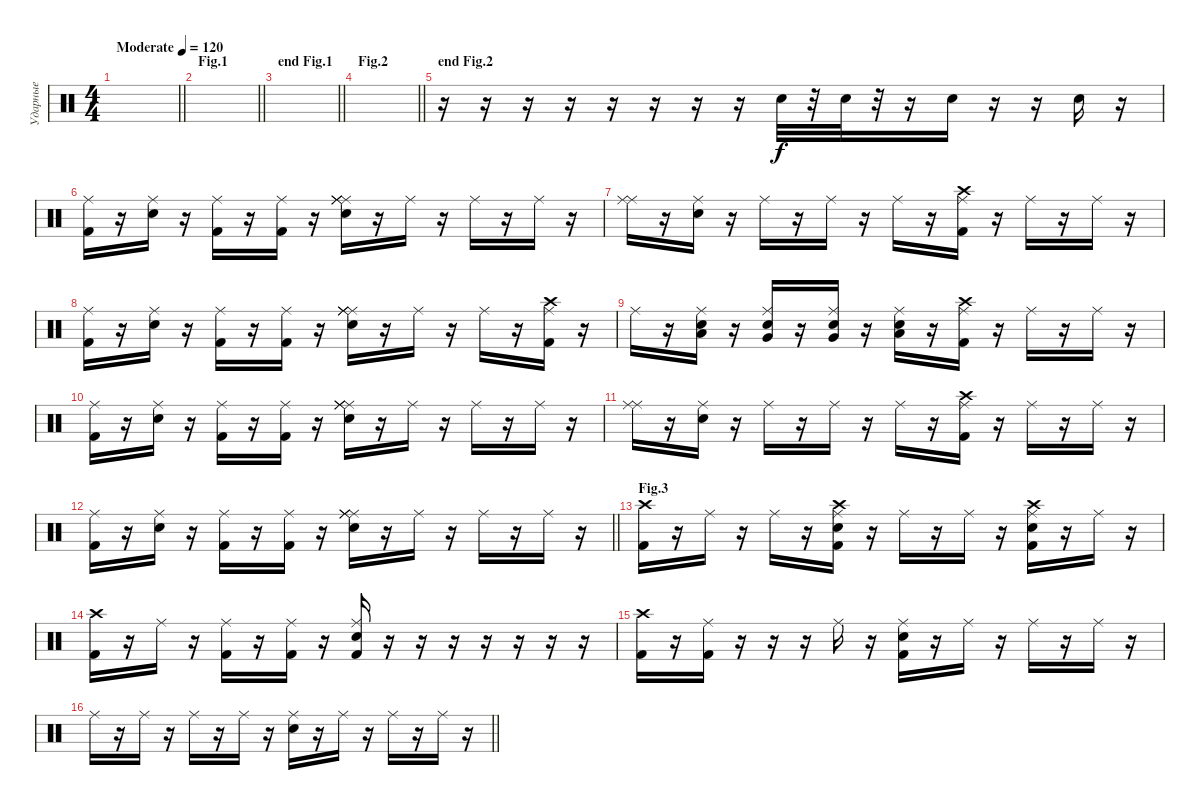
\track ("Ударные" "Ударные") {instrument percussion}
\staff {score}
\articulation defaults
\ts (4 4)
\tempo (120 "Moderate")
\clef neutral
\barLineRight lightlight
\ks c
|
\section ("" "Fig.1")
\barLineRight lightlight
|
\section ("" "end Fig.1")
\barLineRight lightlight
|
\section ("" "Fig.2")
\barLineRight lightlight
|
\section ("" "end Fig.2")
r.16 r.16 r.16 r.16 r.16 r.16 r.16 r.16 "Snare (hit) 2".32 r.32 "Snare (hit) 2".32 r.32 r.16 "Snare (hit) 2".16 r.16 r.16 "Snare (hit) 2".16 r.16 |
("Ride (middle)" "Kick (hit) 2").16 r.16 ("Ride (middle)" "Snare (hit) 2").16 r.16 ("Ride (middle)" "Kick (hit) 2").16 r.16 ("Ride (middle)" "Kick (hit) 2").16 r.16 ("Ride (middle)" "Ride (middle)" "Ride (middle)" "Ride (middle)" "Snare (hit) 2").16 r.16 "Ride (middle)".16 r.16 "Ride (middle)".16 r.16 "Ride (middle)".16 r.16 |
("Ride (middle)" "Ride (middle)").16 r.16 ("Ride (middle)" "Snare (hit) 2").16 r.16 "Ride (middle)".16 r.16 "Ride (middle)".16 r.16 "Ride (middle)".16 r.16 ("Ride (middle)" "Kick (hit) 2" "Crash high (hit)").16 r.16 "Ride (middle)".16 r.16 "Ride (middle)".16 r.16 |
("Ride (middle)" "Kick (hit) 2").16 r.16 ("Ride (middle)" "Snare (hit) 2").16 r.16 ("Ride (middle)" "Kick (hit) 2").16 r.16 ("Ride (middle)" "Kick (hit) 2").16 r.16 ("Ride (middle)" "Ride (middle)" "Ride (middle)" "Ride (middle)" "Snare (hit) 2").16 r.16 "Ride (middle)".16 r.16 "Ride (middle)".16 r.16 ("Ride (middle)" "Crash high (hit)" "Kick (hit) 2").16 r.16 |
"Ride (middle)".16 r.16 ("Ride (middle)" "Low Tom (hit)" "Snare (hit) 2").16 r.16 ("Ride (middle)" "Very Low Tom (hit)" "Snare (hit) 2").16 r.16 ("Ride (middle)" "Very Low Tom (hit)" "Snare (hit) 2").16 r.16 ("Ride (middle)" "Low Floor Tom (hit)" "Snare (hit) 2").16 r.16 ("Ride (middle)" "Kick (hit) 2" "Crash high (hit)").16 r.16 "Ride (middle)".16 r.16 "Ride (middle)".16 r.16 |
("Ride (middle)" "Kick (hit) 2").16 r.16 ("Ride (middle)" "Snare (hit) 2").16 r.16 ("Ride (middle)" "Kick (hit) 2").16 r.16 ("Ride (middle)" "Kick (hit) 2").16 r.16 ("Ride (middle)" "Ride (middle)" "Ride (middle)" "Ride (middle)" "Snare (hit) 2").16 r.16 "Ride (middle)".16 r.16 "Ride (middle)".16 r.16 "Ride (middle)".16 r.16 |
("Ride (middle)" "Ride (middle)").16 r.16 ("Ride (middle)" "Snare (hit) 2").16 r.16 "Ride (middle)".16 r.16 "Ride (middle)".16 r.16 "Ride (middle)".16 r.16 ("Ride (middle)" "Kick (hit) 2" "Crash high (hit)").16 r.16 "Ride (middle)".16 r.16 "Ride (middle)".16 r.16 |
\barLineRight lightlight
("Ride (middle)" "Kick (hit) 2").16 r.16 ("Ride (middle)" "Snare (hit) 2").16 r.16 ("Ride (middle)" "Kick (hit) 2").16 r.16 ("Ride (middle)" "Kick (hit) 2").16 r.16 ("Ride (middle)" "Ride (middle)" "Ride (middle)" "Ride (middle)" "Snare (hit) 2").16 r.16 "Ride (middle)".16 r.16 "Ride (middle)".16 r.16 "Ride (middle)".16 r.16 |
\section ("" "Fig.3")
("Crash high (hit)" "Kick (hit) 2").16 r.16 "Ride (middle)".16 r.16 "Ride (middle)".16 r.16 ("Crash high (hit)" "Snare (hit) 2" "Kick (hit) 2" "Ride (middle)").16 r.16 "Ride (middle)".16 r.16 "Ride (middle)".16 r.16 ("Crash high (hit)" "Kick (hit) 2" "Snare (hit) 2" "Ride (middle)").16 r.16 "Ride (middle)".16 r.16 |
("Kick (hit) 2" "Crash high (hit)").16 r.16 "Ride (middle)".16 r.16 ("Ride (middle)" "Kick (hit) 2").16 r.16 ("Ride (middle)" "Kick (hit) 2").16 r.16 ("Snare (hit) 2" "Ride (middle)" "Kick (hit) 2").16 r.16 r.16 r.16 r.16 r.16 r.16 r.16 |
("Kick (hit) 2" "Crash high (hit)").16 r.16 ("Ride (middle)" "Kick (hit) 2").16 r.16 r.16 r.16 "Ride (middle)".16 r.16 ("Snare (hit) 2" "Ride (middle)" "Kick (hit) 2").16 r.16 "Ride (middle)".16 r.16 "Ride (middle)".16 r.16 "Ride (middle)".16 r.16 |
\barLineRight lightlight "Ride (middle)".16
r.16 "Ride (middle)".16 r.16 "Ride (middle)".16 r.16 "Ride (middle)".16 r.16 ("Snare (hit) 2" "Ride (middle)").16 r.16 "Ride (middle)".16 r.16 "Ride (middle)".16 r.16 "Ride (middle)".16 r.16
